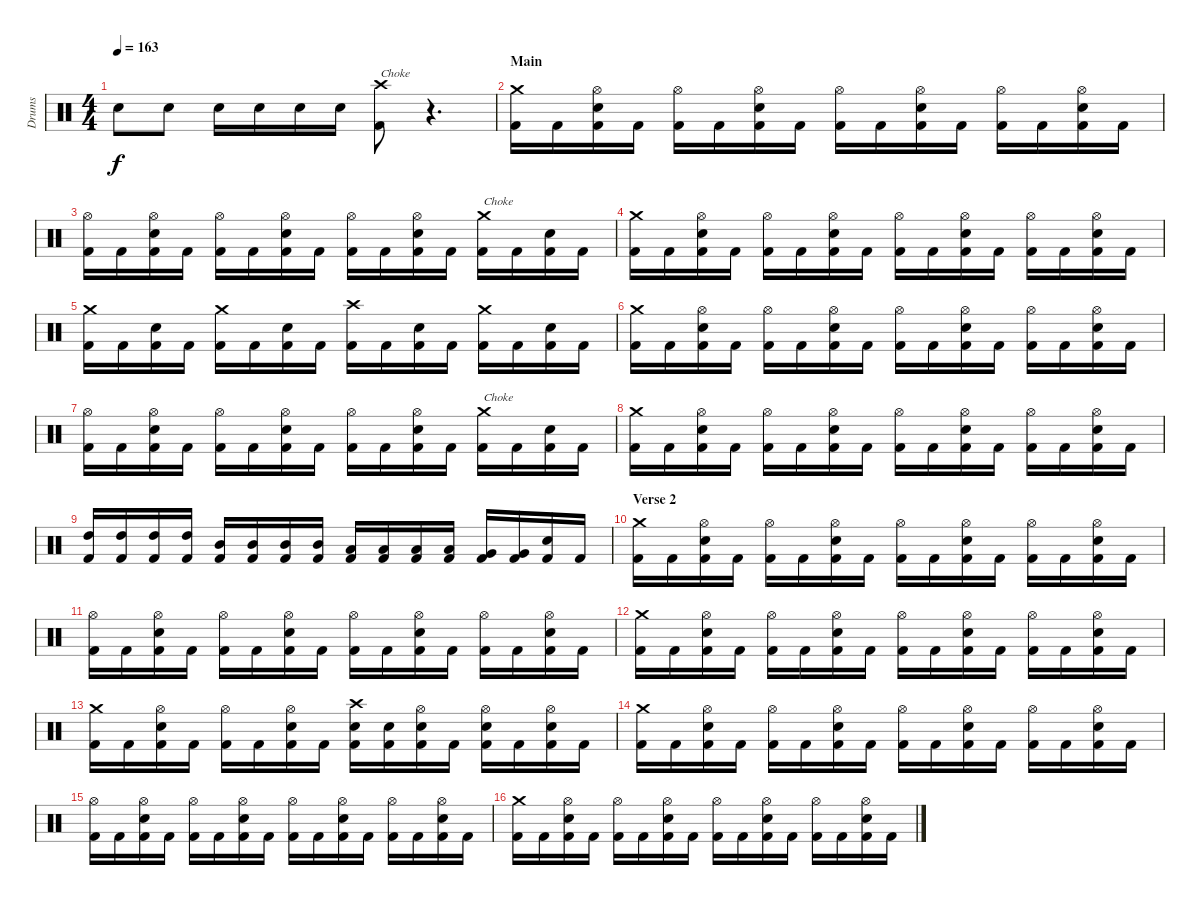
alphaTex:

\track ("Drums" "Drums") {instrument percussion}
\staff {score}
\articulation defaults
\ts (4 4)
\tempo 163
\clef neutral
\ks c "Snare (hit) 2".8{dy f} "Snare (hit) 2".8 "Snare (hit) 2".16 "Snare (hit) 2".16 "Snare (hit) 2".16 "Snare (hit) 2".16
("Crash high (hit)" "Kick (hit) 2").8{txt "Choke"} r.4{d volume 2} |
\section ("" "Main")
("Crash medium (hit)" "Kick (hit) 2").16{volume 14} "Kick (hit) 2".16 ("Hi-Hat (open)" "Snare (hit) 2" "Kick (hit) 2").16 "Kick (hit) 2".16 ("Hi-Hat (open)" "Kick (hit) 2").16 "Kick (hit) 2".16 ("Hi-Hat (open)" "Snare (hit) 2" "Kick (hit) 2").16 "Kick (hit) 2".16 ("Hi-Hat (open)" "Kick (hit) 2").16 "Kick (hit) 2".16 ("Hi-Hat (open)" "Snare (hit) 2" "Kick (hit) 2").16 "Kick (hit) 2".16 ("Hi-Hat (open)" "Kick (hit) 2").16 "Kick (hit) 2".16 ("Hi-Hat (open)" "Snare (hit) 2" "Kick (hit) 2").16 "Kick (hit) 2".16 |
("Hi-Hat (open)" "Kick (hit) 2").16 "Kick (hit) 2".16 ("Hi-Hat (open)" "Snare (hit) 2" "Kick (hit) 2").16 "Kick (hit) 2".16 ("Hi-Hat (open)" "Kick (hit) 2").16 "Kick (hit) 2".16 ("Hi-Hat (open)" "Snare (hit) 2" "Kick (hit) 2").16 "Kick (hit) 2".16 ("Hi-Hat (open)" "Kick (hit) 2").16 "Kick (hit) 2".16 ("Hi-Hat (open)" "Snare (hit) 2" "Kick (hit) 2").16 "Kick (hit) 2".16 ("Crash medium (hit)" "Kick (hit) 2").16{txt "Choke"} "Kick (hit) 2".16 ("Snare (hit) 2" "Kick (hit) 2").16 "Kick (hit) 2".16 |
("Crash medium (hit)" "Kick (hit) 2").16 "Kick (hit) 2".16 ("Hi-Hat (open)" "Snare (hit) 2" "Kick (hit) 2").16 "Kick (hit) 2".16 ("Hi-Hat (open)" "Kick (hit) 2").16 "Kick (hit) 2".16 ("Hi-Hat (open)" "Snare (hit) 2" "Kick (hit) 2").16 "Kick (hit) 2".16 ("Hi-Hat (open)" "Kick (hit) 2").16 "Kick (hit) 2".16 ("Hi-Hat (open)" "Snare (hit) 2" "Kick (hit) 2").16 "Kick (hit) 2".16 ("Hi-Hat (open)" "Kick (hit) 2").16 "Kick (hit) 2".16 ("Hi-Hat (open)" "Snare (hit) 2" "Kick (hit) 2").16 "Kick (hit) 2".16 |
("Crash medium (hit)" "Kick (hit) 2").16 "Kick (hit) 2".16 ("Snare (hit) 2" "Kick (hit) 2").16 "Kick (hit) 2".16 ("Crash medium (hit)" "Kick (hit) 2").16 "Kick (hit) 2".16 ("Snare (hit) 2" "Kick (hit) 2").16 "Kick (hit) 2".16 ("Crash high (hit)" "Kick (hit) 2").16 "Kick (hit) 2".16 ("Snare (hit) 2" "Kick (hit) 2").16 "Kick (hit) 2".16 ("Crash medium (hit)" "Kick (hit) 2").16 "Kick (hit) 2".16 ("Snare (hit) 2" "Kick (hit) 2").16 "Kick (hit) 2".16 |
("Crash medium (hit)" "Kick (hit) 2").16 "Kick (hit) 2".16 ("Hi-Hat (open)" "Snare (hit) 2" "Kick (hit) 2").16 "Kick (hit) 2".16 ("Hi-Hat (open)" "Kick (hit) 2").16 "Kick (hit) 2".16 ("Hi-Hat (open)" "Snare (hit) 2" "Kick (hit) 2").16 "Kick (hit) 2".16 ("Hi-Hat (open)" "Kick (hit) 2").16 "Kick (hit) 2".16 ("Hi-Hat (open)" "Snare (hit) 2" "Kick (hit) 2").16 "Kick (hit) 2".16 ("Hi-Hat (open)" "Kick (hit) 2").16 "Kick (hit) 2".16 ("Hi-Hat (open)" "Snare (hit) 2" "Kick (hit) 2").16 "Kick (hit) 2".16 |
("Hi-Hat (open)" "Kick (hit) 2").16 "Kick (hit) 2".16 ("Hi-Hat (open)" "Snare (hit) 2" "Kick (hit) 2").16 "Kick (hit) 2".16 ("Hi-Hat (open)" "Kick (hit) 2").16 "Kick (hit) 2".16 ("Hi-Hat (open)" "Snare (hit) 2" "Kick (hit) 2").16 "Kick (hit) 2".16 ("Hi-Hat (open)" "Kick (hit) 2").16 "Kick (hit) 2".16 ("Hi-Hat (open)" "Snare (hit) 2" "Kick (hit) 2").16 "Kick (hit) 2".16 ("Crash medium (hit)" "Kick (hit) 2").16{txt "Choke"} "Kick (hit) 2".16 ("Snare (hit) 2" "Kick (hit) 2").16 "Kick (hit) 2".16 |
("Crash medium (hit)" "Kick (hit) 2").16 "Kick (hit) 2".16 ("Hi-Hat (open)" "Snare (hit) 2" "Kick (hit) 2").16 "Kick (hit) 2".16 ("Hi-Hat (open)" "Kick (hit) 2").16 "Kick (hit) 2".16 ("Hi-Hat (open)" "Snare (hit) 2" "Kick (hit) 2").16 "Kick (hit) 2".16 ("Hi-Hat (open)" "Kick (hit) 2").16 "Kick (hit) 2".16 ("Hi-Hat (open)" "Snare (hit) 2" "Kick (hit) 2").16 "Kick (hit) 2".16 ("Hi-Hat (open)" "Kick (hit) 2").16 "Kick (hit) 2".16 ("Hi-Hat (open)" "Snare (hit) 2" "Kick (hit) 2").16 "Kick (hit) 2".16 |
("High Tom (hit)" "Kick (hit) 2").16 ("High Tom (hit)" "Kick (hit) 2").16 ("High Tom (hit)" "Kick (hit) 2").16 ("High Tom (hit)" "Kick (hit) 2").16 ("Mid Tom (hit)" "Kick (hit) 2").16 ("Mid Tom (hit)" "Kick (hit) 2").16 ("Mid Tom (hit)" "Kick (hit) 2").16 ("Mid Tom (hit)" "Kick (hit) 2").16 ("Low Tom (hit)" "Kick (hit) 2").16 ("Low Tom (hit)" "Kick (hit) 2").16 ("Low Tom (hit)" "Kick (hit) 2").16 ("Low Tom (hit)" "Kick (hit) 2").16 ("Very Low Tom (hit)" "Kick (hit) 2").16 ("Very Low Tom (hit)" "Kick (hit) 2").16 ("Snare (hit) 2" "Kick (hit) 2").16 "Kick (hit) 2".16 |
\section ("" "Verse 2")
("Crash medium (hit)" "Kick (hit) 2").16 "Kick (hit) 2".16 ("Hi-Hat (open)" "Snare (hit) 2" "Kick (hit) 2").16 "Kick (hit) 2".16 ("Hi-Hat (open)" "Kick (hit) 2").16 "Kick (hit) 2".16 ("Hi-Hat (open)" "Snare (hit) 2" "Kick (hit) 2").16 "Kick (hit) 2".16 ("Hi-Hat (open)" "Kick (hit) 2").16 "Kick (hit) 2".16 ("Hi-Hat (open)" "Snare (hit) 2" "Kick (hit) 2").16 "Kick (hit) 2".16 ("Hi-Hat (open)" "Kick (hit) 2").16 "Kick (hit) 2".16 ("Hi-Hat (open)" "Snare (hit) 2" "Kick (hit) 2").16 "Kick (hit) 2".16 |
("Hi-Hat (open)" "Kick (hit) 2").16 "Kick (hit) 2".16 ("Hi-Hat (open)" "Snare (hit) 2" "Kick (hit) 2").16 "Kick (hit) 2".16 ("Hi-Hat (open)" "Kick (hit) 2").16 "Kick (hit) 2".16 ("Hi-Hat (open)" "Snare (hit) 2" "Kick (hit) 2").16 "Kick (hit) 2".16 ("Hi-Hat (open)" "Kick (hit) 2").16 "Kick (hit) 2".16 ("Hi-Hat (open)" "Snare (hit) 2" "Kick (hit) 2").16 "Kick (hit) 2".16 ("Hi-Hat (open)" "Kick (hit) 2").16 "Kick (hit) 2".16 ("Hi-Hat (open)" "Snare (hit) 2" "Kick (hit) 2").16 "Kick (hit) 2".16 |
("Crash medium (hit)" "Kick (hit) 2").16 "Kick (hit) 2".16 ("Hi-Hat (open)" "Snare (hit) 2" "Kick (hit) 2").16 "Kick (hit) 2".16 ("Hi-Hat (open)" "Kick (hit) 2").16 "Kick (hit) 2".16 ("Hi-Hat (open)" "Snare (hit) 2" "Kick (hit) 2").16 "Kick (hit) 2".16 ("Hi-Hat (open)" "Kick (hit) 2").16 "Kick (hit) 2".16 ("Hi-Hat (open)" "Snare (hit) 2" "Kick (hit) 2").16 "Kick (hit) 2".16 ("Hi-Hat (open)" "Kick (hit) 2").16 "Kick (hit) 2".16 ("Hi-Hat (open)" "Snare (hit) 2" "Kick (hit) 2").16 "Kick (hit) 2".16 |
("Crash medium (hit)" "Kick (hit) 2").16 "Kick (hit) 2".16 ("Hi-Hat (open)" "Snare (hit) 2" "Kick (hit) 2").16 "Kick (hit) 2".16 ("Hi-Hat (open)" "Kick (hit) 2").16 "Kick (hit) 2".16 ("Hi-Hat (open)" "Snare (hit) 2" "Kick (hit) 2").16 "Kick (hit) 2".16 ("Crash high (hit)" "Snare (hit) 2" "Kick (hit) 2").16 ("Snare (hit) 2" "Kick (hit) 2").16 ("Hi-Hat (open)" "Snare (hit) 2" "Kick (hit) 2").16 "Kick (hit) 2".16 ("Hi-Hat (open)" "Snare (hit) 2" "Kick (hit) 2").16 "Kick (hit) 2".16 ("Hi-Hat (open)" "Snare (hit) 2" "Kick (hit) 2").16 "Kick (hit) 2".16 |
("Crash medium (hit)" "Kick (hit) 2").16 "Kick (hit) 2".16 ("Hi-Hat (open)" "Snare (hit) 2" "Kick (hit) 2").16 "Kick (hit) 2".16 ("Hi-Hat (open)" "Kick (hit) 2").16 "Kick (hit) 2".16 ("Hi-Hat (open)" "Snare (hit) 2" "Kick (hit) 2").16 "Kick (hit) 2".16 ("Hi-Hat (open)" "Kick (hit) 2").16 "Kick (hit) 2".16 ("Hi-Hat (open)" "Snare (hit) 2" "Kick (hit) 2").16 "Kick (hit) 2".16 ("Hi-Hat (open)" "Kick (hit) 2").16 "Kick (hit) 2".16 ("Hi-Hat (open)" "Snare (hit) 2" "Kick (hit) 2").16 "Kick (hit) 2".16 |
("Hi-Hat (open)" "Kick (hit) 2").16 "Kick (hit) 2".16 ("Hi-Hat (open)" "Snare (hit) 2" "Kick (hit) 2").16 "Kick (hit) 2".16 ("Hi-Hat (open)" "Kick (hit) 2").16 "Kick (hit) 2".16 ("Hi-Hat (open)" "Snare (hit) 2" "Kick (hit) 2").16 "Kick (hit) 2".16 ("Hi-Hat (open)" "Kick (hit) 2").16 "Kick (hit) 2".16 ("Hi-Hat (open)" "Snare (hit) 2" "Kick (hit) 2").16 "Kick (hit) 2".16 ("Hi-Hat (open)" "Kick (hit) 2").16 "Kick (hit) 2".16 ("Hi-Hat (open)" "Snare (hit) 2" "Kick (hit) 2").16 "Kick (hit) 2".16 |
("Crash medium (hit)" "Kick (hit) 2").16 "Kick (hit) 2".16 ("Hi-Hat (open)" "Snare (hit) 2" "Kick (hit) 2").16 "Kick (hit) 2".16 ("Hi-Hat (open)" "Kick (hit) 2").16 "Kick (hit) 2".16 ("Hi-Hat (open)" "Snare (hit) 2" "Kick (hit) 2").16 "Kick (hit) 2".16 ("Hi-Hat (open)" "Kick (hit) 2").16 "Kick (hit) 2".16 ("Hi-Hat (open)" "Snare (hit) 2" "Kick (hit) 2").16 "Kick (hit) 2".16 ("Hi-Hat (open)" "Kick (hit) 2").16 "Kick (hit) 2".16 ("Hi-Hat (open)" "Snare (hit) 2" "Kick (hit) 2").16 "Kick (hit) 2".16
